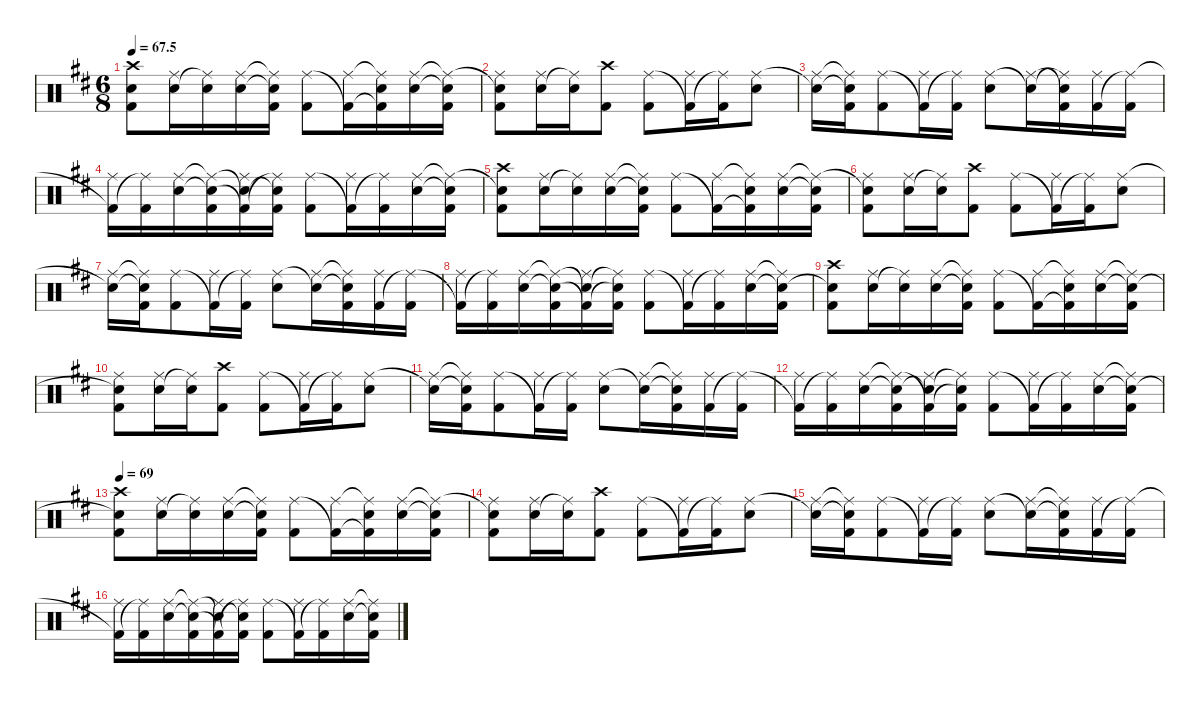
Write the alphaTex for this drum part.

\defaultSystemsLayout 4
\hideDynamics
\bracketExtendMode nobrackets
\singleTrackTrackNamePolicy hidden
\multiTrackTrackNamePolicy hidden
\firstSystemTrackNameMode fullname
\firstSystemTrackNameOrientation horizontal
\otherSystemsTrackNameOrientation horizontal
\track ("Drumkit" "drm.") {defaultSystemsLayout 4 instrument percussion}
\staff {score}
\articulation defaults
\ts (6 8)
\tempo
67.5
\accidentals auto
\clef neutral
\ottava regular
\simile none
\ks bminor
("Snare (hit) 2"{t acc forcenatural} "Kick (hit) 2"{acc forcenatural} "Crash high (hit)"{acc #}).8{dy ff beam Down} ("Snare (hit) 2"{acc forcenatural} "Ride (middle)"{acc #}).16{beam Down} ("Ride (middle)"{t acc #} "Snare (hit) 2"{acc forcenatural}).16{beam Down} ("Snare (hit) 2"{acc forcenatural} "Ride (middle)"{acc #}).16{beam Down} ("Snare (hit) 2"{t acc forcenatural} "Ride (middle)"{t acc #} "Kick (hit) 2"{acc forcenatural}).16{beam Down} ("Ride (middle)"{acc #} "Kick (hit) 2"{acc forcenatural}).8{beam Down} ("Kick (hit) 2"{t acc forcenatural} "Ride (middle)"{acc #}).16{beam Down} ("Kick (hit) 2"{t acc forcenatural} "Ride (middle)"{t acc #} "Snare (hit) 2"{acc forcenatural}).16{beam Down} ("Ride (middle)"{acc #} "Snare (hit) 2"{acc forcenatural}).16{beam Down} ("Ride (middle)"{t acc #} "Snare (hit) 2"{t acc forcenatural} "Kick (hit) 2"{acc forcenatural}).16{beam Down} |
("Snare (hit) 2"{t acc forcenatural} "Kick (hit) 2"{acc forcenatural} "Ride (middle)"{acc #}).8{beam Down} ("Snare (hit) 2"{acc forcenatural} "Ride (middle)"{acc #}).16{beam Down} ("Ride (middle)"{t acc #} "Snare (hit) 2"{acc forcenatural}).16{beam Down} ("Kick (hit) 2"{acc forcenatural} "Crash high (hit)"{acc #}).8{beam Down} ("Ride (middle)"{acc #} "Kick (hit) 2"{acc forcenatural}).8{beam Down} ("Kick (hit) 2"{t acc forcenatural} "Ride (middle)"{acc #}).16{beam Down} ("Ride (middle)"{t acc #} "Kick (hit) 2"{acc forcenatural}).16{beam Down} ("Ride (middle)"{acc #} "Snare (hit) 2"{acc forcenatural}).8{beam Down} |
("Snare (hit) 2"{t acc forcenatural} "Ride (middle)"{acc #}).16{beam Down} ("Snare (hit) 2"{t acc forcenatural} "Ride (middle)"{t acc #} "Kick (hit) 2"{acc forcenatural}).16{beam Down} ("Ride (middle)"{acc #} "Kick (hit) 2"{acc forcenatural}).8{beam Down} ("Kick (hit) 2"{t acc forcenatural} "Ride (middle)"{acc #}).16{beam Down} ("Ride (middle)"{t acc #} "Kick (hit) 2"{acc forcenatural}).16{beam Down} ("Ride (middle)"{acc #} "Snare (hit) 2"{acc forcenatural}).8{beam Down} ("Snare (hit) 2"{t acc forcenatural} "Ride (middle)"{acc #}).16{beam Down} ("Ride (middle)"{t acc #} "Snare (hit) 2"{t acc forcenatural} "Kick (hit) 2"{acc forcenatural}).16{beam Down} ("Kick (hit) 2"{acc forcenatural} "Ride (middle)"{acc #}).16{beam Down} ("Ride (middle)"{t acc #} "Kick (hit) 2"{acc forcenatural}).16{beam Down} |
("Kick (hit) 2"{t acc forcenatural} "Ride (middle)"{acc #}).16{beam Down} ("Ride (middle)"{t acc #} "Kick (hit) 2"{acc forcenatural}).16{beam Down} ("Ride (middle)"{acc #} "Snare (hit) 2"{acc forcenatural}).16{beam Down} ("Ride (middle)"{t acc #} "Snare (hit) 2"{t acc forcenatural} "Kick (hit) 2"{acc forcenatural}).16{beam Down} ("Snare (hit) 2"{t acc forcenatural} "Kick (hit) 2"{t acc forcenatural} "Ride (middle)"{acc #}).16{beam Down} ("Snare (hit) 2"{t acc forcenatural} "Ride (middle)"{t acc #} "Kick (hit) 2"{acc forcenatural}).16{beam Down} ("Ride (middle)"{acc #} "Kick (hit) 2"{acc forcenatural}).8{beam Down} ("Kick (hit) 2"{t acc forcenatural} "Ride (middle)"{acc #}).16{beam Down} ("Ride (middle)"{t acc #} "Kick (hit) 2"{acc forcenatural}).16{beam Down} ("Ride (middle)"{acc #} "Snare (hit) 2"{acc forcenatural}).16{beam Down} ("Ride (middle)"{t acc #} "Snare (hit) 2"{t acc forcenatural} "Kick (hit) 2"{acc forcenatural}).16{beam Down} |
("Snare (hit) 2"{t acc forcenatural} "Kick (hit) 2"{acc forcenatural} "Crash high (hit)"{acc #}).8{beam Down} ("Snare (hit) 2"{acc forcenatural} "Ride (middle)"{acc #}).16{beam Down} ("Ride (middle)"{t acc #} "Snare (hit) 2"{acc forcenatural}).16{beam Down} ("Snare (hit) 2"{acc forcenatural} "Ride (middle)"{acc #}).16{beam Down} ("Snare (hit) 2"{t acc forcenatural} "Ride (middle)"{t acc #} "Kick (hit) 2"{acc forcenatural}).16{beam Down} ("Ride (middle)"{acc #} "Kick (hit) 2"{acc forcenatural}).8{beam Down} ("Kick (hit) 2"{t acc forcenatural} "Ride (middle)"{acc #}).16{beam Down} ("Kick (hit) 2"{t acc forcenatural} "Ride (middle)"{t acc #} "Snare (hit) 2"{acc forcenatural}).16{beam Down} ("Ride (middle)"{acc #} "Snare (hit) 2"{acc forcenatural}).16{beam Down} ("Ride (middle)"{t acc #} "Snare (hit) 2"{t acc forcenatural} "Kick (hit) 2"{acc forcenatural}).16{beam Down} |
("Snare (hit) 2"{t acc forcenatural} "Kick (hit) 2"{acc forcenatural} "Ride (middle)"{acc #}).8{beam Down} ("Snare (hit) 2"{acc forcenatural} "Ride (middle)"{acc #}).16{beam Down} ("Ride (middle)"{t acc #} "Snare (hit) 2"{acc forcenatural}).16{beam Down} ("Kick (hit) 2"{acc forcenatural} "Crash high (hit)"{acc #}).8{beam Down} ("Ride (middle)"{acc #} "Kick (hit) 2"{acc forcenatural}).8{beam Down} ("Kick (hit) 2"{t acc forcenatural} "Ride (middle)"{acc #}).16{beam Down} ("Ride (middle)"{t acc #} "Kick (hit) 2"{acc forcenatural}).16{beam Down} ("Ride (middle)"{acc #} "Snare (hit) 2"{acc forcenatural}).8{beam Down} |
("Snare (hit) 2"{t acc forcenatural} "Ride (middle)"{acc #}).16{beam Down} ("Snare (hit) 2"{t acc forcenatural} "Ride (middle)"{t acc #} "Kick (hit) 2"{acc forcenatural}).16{beam Down} ("Ride (middle)"{acc #} "Kick (hit) 2"{acc forcenatural}).8{beam Down} ("Kick (hit) 2"{t acc forcenatural} "Ride (middle)"{acc #}).16{beam Down} ("Ride (middle)"{t acc #} "Kick (hit) 2"{acc forcenatural}).16{beam Down} ("Ride (middle)"{acc #} "Snare (hit) 2"{acc forcenatural}).8{beam Down} ("Snare (hit) 2"{t acc forcenatural} "Ride (middle)"{acc #}).16{beam Down} ("Snare (hit) 2"{t acc forcenatural} "Ride (middle)"{t acc #} "Kick (hit) 2"{acc forcenatural}).16{beam Down} ("Kick (hit) 2"{acc forcenatural} "Ride (middle)"{acc #}).16{beam Down} ("Ride (middle)"{t acc #} "Kick (hit) 2"{acc forcenatural}).16{beam Down} |
("Kick (hit) 2"{t acc forcenatural} "Ride (middle)"{acc #}).16{beam Down} ("Ride (middle)"{t acc #} "Kick (hit) 2"{acc forcenatural}).16{beam Down} ("Ride (middle)"{acc #} "Snare (hit) 2"{acc forcenatural}).16{beam Down} ("Ride (middle)"{t acc #} "Snare (hit) 2"{t acc forcenatural} "Kick (hit) 2"{acc forcenatural}).16{beam Down} ("Snare (hit) 2"{t acc forcenatural} "Kick (hit) 2"{t acc forcenatural} "Ride (middle)"{acc #}).16{beam Down} ("Ride (middle)"{t acc #} "Snare (hit) 2"{t acc forcenatural} "Kick (hit) 2"{acc forcenatural}).16{beam Down} ("Ride (middle)"{acc #} "Kick (hit) 2"{acc forcenatural}).8{beam Down} ("Kick (hit) 2"{t acc forcenatural} "Ride (middle)"{acc #}).16{beam Down} ("Ride (middle)"{t acc #} "Kick (hit) 2"{acc forcenatural}).16{beam Down} ("Ride (middle)"{acc #} "Snare (hit) 2"{acc forcenatural}).16{beam Down} ("Ride (middle)"{t acc #} "Snare (hit) 2"{t acc forcenatural} "Kick (hit) 2"{acc forcenatural}).16{beam Down} |
("Kick (hit) 2"{acc forcenatural} "Snare (hit) 2"{t acc forcenatural} "Crash high (hit)"{acc #}).8{beam Down} ("Snare (hit) 2"{acc forcenatural} "Ride (middle)"{acc #}).16{beam Down} ("Ride (middle)"{t acc #} "Snare (hit) 2"{acc forcenatural}).16{beam Down} ("Snare (hit) 2"{acc forcenatural} "Ride (middle)"{acc #}).16{beam Down} ("Snare (hit) 2"{t acc forcenatural} "Ride (middle)"{t acc #} "Kick (hit) 2"{acc forcenatural}).16{beam Down} ("Ride (middle)"{acc #} "Kick (hit) 2"{acc forcenatural}).8{beam Down} ("Kick (hit) 2"{t acc forcenatural} "Ride (middle)"{acc #}).16{beam Down} ("Kick (hit) 2"{t acc forcenatural} "Ride (middle)"{t acc #} "Snare (hit) 2"{acc forcenatural}).16{beam Down} ("Ride (middle)"{acc #} "Snare (hit) 2"{acc forcenatural}).16{beam Down} ("Ride (middle)"{t acc #} "Snare (hit) 2"{t acc forcenatural} "Kick (hit) 2"{acc forcenatural}).16{beam Down} |
("Kick (hit) 2"{acc forcenatural} "Snare (hit) 2"{t acc forcenatural} "Ride (middle)"{acc #}).8{beam Down} ("Snare (hit) 2"{acc forcenatural} "Ride (middle)"{acc #}).16{beam Down} ("Ride (middle)"{t acc #} "Snare (hit) 2"{acc forcenatural}).16{beam Down} ("Kick (hit) 2"{acc forcenatural} "Crash high (hit)"{acc #}).8{beam Down} ("Ride (middle)"{acc #} "Kick (hit) 2"{acc forcenatural}).8{beam Down} ("Kick (hit) 2"{t acc forcenatural} "Ride (middle)"{acc #}).16{beam Down} ("Ride (middle)"{t acc #} "Kick (hit) 2"{acc forcenatural}).16{beam Down} ("Ride (middle)"{acc #} "Snare (hit) 2"{acc forcenatural}).8{beam Down} |
("Snare (hit) 2"{t acc forcenatural} "Ride (middle)"{acc #}).16{beam Down} ("Snare (hit) 2"{t acc forcenatural} "Ride (middle)"{t acc #} "Kick (hit) 2"{acc forcenatural}).16{beam Down} ("Ride (middle)"{acc #} "Kick (hit) 2"{acc forcenatural}).8{beam Down} ("Kick (hit) 2"{t acc forcenatural} "Ride (middle)"{acc #}).16{beam Down} ("Ride (middle)"{t acc #} "Kick (hit) 2"{acc forcenatural}).16{beam Down} ("Ride (middle)"{acc #} "Snare (hit) 2"{acc forcenatural}).8{beam Down} ("Snare (hit) 2"{t acc forcenatural} "Ride (middle)"{acc #}).16{beam Down} ("Snare (hit) 2"{t acc forcenatural} "Ride (middle)"{t acc #} "Kick (hit) 2"{acc forcenatural}).16{beam Down} ("Kick (hit) 2"{acc forcenatural} "Ride (middle)"{acc #}).16{beam Down} ("Ride (middle)"{t acc #} "Kick (hit) 2"{acc forcenatural}).16{beam Down} |
("Kick (hit) 2"{t acc forcenatural} "Ride (middle)"{acc #}).16{beam Down} ("Ride (middle)"{t acc #} "Kick (hit) 2"{acc forcenatural}).16{beam Down} ("Ride (middle)"{acc #} "Snare (hit) 2"{acc forcenatural}).16{beam Down} ("Ride (middle)"{t acc #} "Snare (hit) 2"{t acc forcenatural} "Kick (hit) 2"{acc forcenatural}).16{beam Down} ("Kick (hit) 2"{t acc forcenatural} "Snare (hit) 2"{t acc forcenatural} "Ride (middle)"{acc #}).16{beam Down} ("Snare (hit) 2"{t acc forcenatural} "Ride (middle)"{t acc #} "Kick (hit) 2"{acc forcenatural}).16{beam Down} ("Ride (middle)"{acc #} "Kick (hit) 2"{acc forcenatural}).8{beam Down} ("Kick (hit) 2"{t acc forcenatural} "Ride (middle)"{acc #}).16{beam Down} ("Ride (middle)"{t acc #} "Kick (hit) 2"{acc forcenatural}).16{beam Down} ("Ride (middle)"{acc #} "Snare (hit) 2"{acc forcenatural}).16{beam Down} ("Ride (middle)"{t acc #} "Snare (hit) 2"{t acc forcenatural} "Kick (hit) 2"{acc forcenatural}).16{beam Down} |
\tempo 69
("Kick (hit) 2"{acc forcenatural} "Snare (hit) 2"{t acc forcenatural} "Crash high (hit)"{acc #}).8{beam Down} ("Snare (hit) 2"{acc forcenatural} "Ride (middle)"{acc #}).16{beam Down} ("Ride (middle)"{t acc #} "Snare (hit) 2"{acc forcenatural}).16{beam Down} ("Snare (hit) 2"{acc forcenatural} "Ride (middle)"{acc #}).16{beam Down} ("Snare (hit) 2"{t acc forcenatural} "Ride (middle)"{t acc #} "Kick (hit) 2"{acc forcenatural}).16{beam Down} ("Ride (middle)"{acc #} "Kick (hit) 2"{acc forcenatural}).8{beam Down} ("Kick (hit) 2"{t acc forcenatural} "Ride (middle)"{acc #}).16{beam Down} ("Kick (hit) 2"{t acc forcenatural} "Ride (middle)"{t acc #} "Snare (hit) 2"{acc forcenatural}).16{beam Down} ("Ride (middle)"{acc #} "Snare (hit) 2"{acc forcenatural}).16{beam Down} ("Ride (middle)"{t acc #} "Snare (hit) 2"{t acc forcenatural} "Kick (hit) 2"{acc forcenatural}).16{beam Down} |
("Snare (hit) 2"{t acc forcenatural} "Kick (hit) 2"{acc forcenatural} "Ride (middle)"{acc #}).8{beam Down} ("Snare (hit) 2"{acc forcenatural} "Ride (middle)"{acc #}).16{beam Down} ("Ride (middle)"{t acc #} "Snare (hit) 2"{acc forcenatural}).16{beam Down} ("Kick (hit) 2"{acc forcenatural} "Crash high (hit)"{acc #}).8{beam Down} ("Ride (middle)"{acc #} "Kick (hit) 2"{acc forcenatural}).8{beam Down} ("Kick (hit) 2"{t acc forcenatural} "Ride (middle)"{acc #}).16{beam Down} ("Ride (middle)"{t acc #} "Kick (hit) 2"{acc forcenatural}).16{beam Down} ("Ride (middle)"{acc #} "Snare (hit) 2"{acc forcenatural}).8{beam Down} |
("Snare (hit) 2"{t acc forcenatural} "Ride (middle)"{acc #}).16{beam Down} ("Snare (hit) 2"{t acc forcenatural} "Ride (middle)"{t acc #} "Kick (hit) 2"{acc forcenatural}).16{beam Down} ("Ride (middle)"{acc #} "Kick (hit) 2"{acc forcenatural}).8{beam Down} ("Kick (hit) 2"{t acc forcenatural} "Ride (middle)"{acc #}).16{beam Down} ("Ride (middle)"{t acc #} "Kick (hit) 2"{acc forcenatural}).16{beam Down} ("Ride (middle)"{acc #} "Snare (hit) 2"{acc forcenatural}).8{beam Down} ("Snare (hit) 2"{t acc forcenatural} "Ride (middle)"{acc #}).16{beam Down} ("Snare (hit) 2"{t acc forcenatural} "Ride (middle)"{t acc #} "Kick (hit) 2"{acc forcenatural}).16{beam Down} ("Kick (hit) 2"{acc forcenatural} "Ride (middle)"{acc #}).16{beam Down} ("Ride (middle)"{t acc #} "Kick (hit) 2"{acc forcenatural}).16{beam Down} |
("Kick (hit) 2"{t acc forcenatural} "Ride (middle)"{acc #}).16{beam Down} ("Ride (middle)"{t acc #} "Kick (hit) 2"{acc forcenatural}).16{beam Down} ("Ride (middle)"{acc #} "Snare (hit) 2"{acc forcenatural}).16{beam Down} ("Ride (middle)"{t acc #} "Snare (hit) 2"{t acc forcenatural} "Kick (hit) 2"{acc forcenatural}).16{beam Down} ("Snare (hit) 2"{t acc forcenatural} "Kick (hit) 2"{t acc forcenatural} "Ride (middle)"{acc #}).16{beam Down} ("Snare (hit) 2"{t acc forcenatural} "Ride (middle)"{t acc #} "Kick (hit) 2"{acc forcenatural}).16{beam Down} ("Ride (middle)"{acc #} "Kick (hit) 2"{acc forcenatural}).8{beam Down} ("Kick (hit) 2"{t acc forcenatural} "Ride (middle)"{acc #}).16{beam Down} ("Ride (middle)"{t acc #} "Kick (hit) 2"{acc forcenatural}).16{beam Down} ("Ride (middle)"{acc #} "Snare (hit) 2"{acc forcenatural}).16{beam Down} ("Ride (middle)"{t acc #} "Snare (hit) 2"{t acc forcenatural} "Kick (hit) 2"{acc forcenatural}).16{beam Down}
